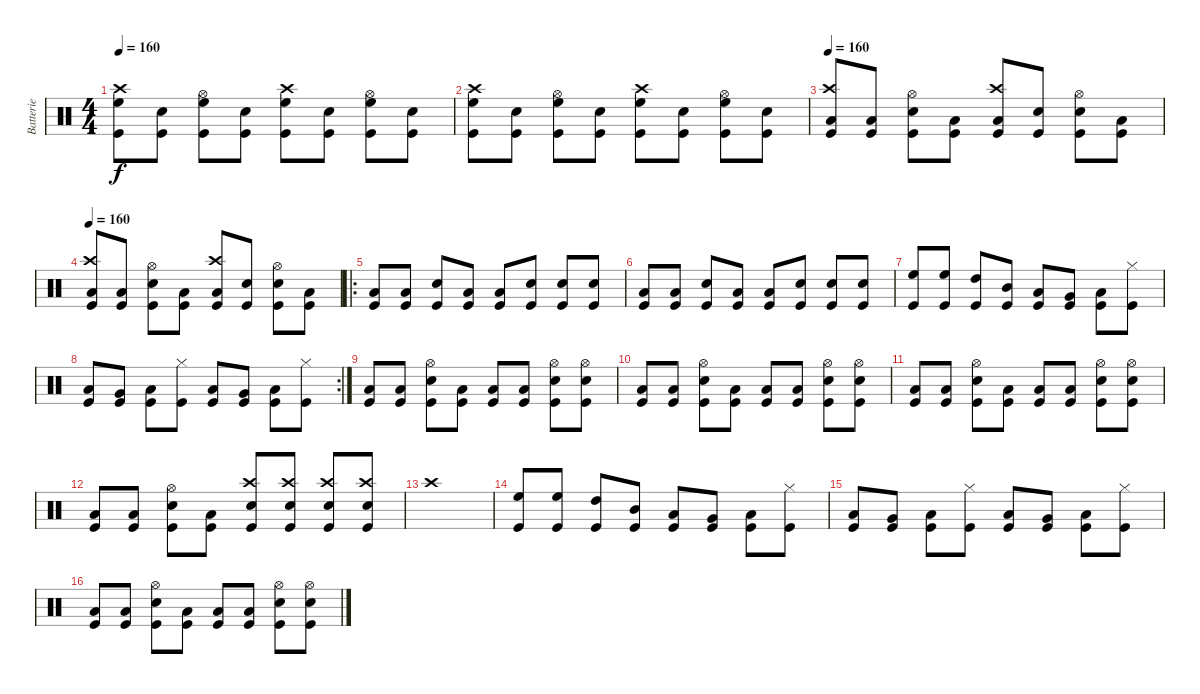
\track ("Batterie" "Batterie") {instrument percussion}
\staff {score}
\articulation defaults
\ts (4 4)
\tempo 160
\clef neutral
\ks c
("Kick (hit)" "High Floor Tom (hit)" "Crash high (hit)").8{dy f} ("Kick (hit)" "Snare (hit) 2").8 ("Kick (hit)" "High Floor Tom (hit)" "Hi-Hat (open)").8 ("Kick (hit)" "Snare (hit) 2").8 ("Kick (hit)" "High Floor Tom (hit)" "Crash high (hit)").8 ("Kick (hit)" "Snare (hit) 2").8 ("Kick (hit)" "High Floor Tom (hit)" "Hi-Hat (open)").8 ("Kick (hit)" "Snare (hit) 2").8 |
("Kick (hit)" "High Floor Tom (hit)" "Crash high (hit)").8 ("Kick (hit)" "Snare (hit) 2").8 ("Kick (hit)" "High Floor Tom (hit)" "Hi-Hat (open)").8 ("Kick (hit)" "Snare (hit) 2").8 ("Kick (hit)" "High Floor Tom (hit)" "Crash high (hit)").8 ("Kick (hit)" "Snare (hit) 2").8 ("Kick (hit)" "High Floor Tom (hit)" "Hi-Hat (open)").8 ("Kick (hit)" "Snare (hit) 2").8 |
\tempo 160
("Kick (hit)" "Low Tom (hit)" "Crash high (hit)").8 ("Kick (hit)" "Low Tom (hit)").8 ("Kick (hit)" "Snare (hit) 2" "Hi-Hat (open)").8 ("Kick (hit)" "Low Tom (hit)").8 ("Kick (hit)" "Low Tom (hit)" "Crash high (hit)").8 ("Kick (hit)" "Snare (hit) 2").8 ("Kick (hit)" "Snare (hit) 2" "Hi-Hat (open)").8 ("Low Floor Tom (hit)" "Kick (hit)").8 |
\tempo 160
("Kick (hit)" "Low Tom (hit)" "Crash high (hit)").8 ("Kick (hit)" "Low Tom (hit)").8 ("Kick (hit)" "Snare (hit) 2" "Hi-Hat (open)").8 ("Kick (hit)" "Low Tom (hit)").8 ("Kick (hit)" "Low Tom (hit)" "Crash high (hit)").8 ("Kick (hit)" "Snare (hit) 2").8 ("Kick (hit)" "Snare (hit) 2" "Hi-Hat (open)").8 ("Low Floor Tom (hit)" "Kick (hit)").8 |
\ro
("Low Floor Tom (hit)" "Kick (hit)").8 ("Low Floor Tom (hit)" "Kick (hit)").8 ("Snare (hit) 2" "Kick (hit)").8 ("Low Floor Tom (hit)" "Kick (hit)").8 ("Low Floor Tom (hit)" "Kick (hit)").8 ("Snare (hit) 2" "Kick (hit)").8 ("Snare (hit) 2" "Kick (hit)").8 ("Snare (hit) 2" "Kick (hit)").8 |
("Low Floor Tom (hit)" "Kick (hit)").8 ("Low Floor Tom (hit)" "Kick (hit)").8 ("Snare (hit) 2" "Kick (hit)").8 ("Low Floor Tom (hit)" "Kick (hit)").8 ("Low Floor Tom (hit)" "Kick (hit)").8 ("Snare (hit) 2" "Kick (hit)").8 ("Snare (hit) 2" "Kick (hit)").8 ("Snare (hit) 2" "Kick (hit)").8 |
("Kick (hit)" "High Floor Tom (hit)").8 ("Kick (hit)" "High Floor Tom (hit)").8 ("Kick (hit)" "High Tom (hit)").8 ("Kick (hit)" "Mid Tom (hit)").8 ("Kick (hit)" "Low Tom (hit)").8 ("Kick (hit)" "Very Low Tom (hit)").8 ("Kick (hit)" "Low Floor Tom (hit)").8 ("Kick (hit)" "Hi-Hat (closed)").8 |
\rc 2
("Kick (hit)" "Low Tom (hit)").8 ("Kick (hit)" "Very Low Tom (hit)").8 ("Kick (hit)" "Low Floor Tom (hit)").8 ("Kick (hit)" "Hi-Hat (closed)").8 ("Kick (hit)" "Low Tom (hit)").8 ("Kick (hit)" "Very Low Tom (hit)").8 ("Kick (hit)" "Low Floor Tom (hit)").8 ("Kick (hit)" "Hi-Hat (closed)").8 |
("Low Floor Tom (hit)" "Kick (hit)").8 ("Low Floor Tom (hit)" "Kick (hit)").8 ("Hi-Hat (open)" "Snare (hit) 2" "Kick (hit)").8 ("Low Floor Tom (hit)" "Kick (hit)").8 ("Low Floor Tom (hit)" "Kick (hit)").8 ("Low Floor Tom (hit)" "Kick (hit)").8 ("Hi-Hat (open)" "Snare (hit) 2" "Kick (hit)").8 ("Hi-Hat (open)" "Snare (hit) 2" "Kick (hit)").8 |
("Low Floor Tom (hit)" "Kick (hit)").8 ("Low Floor Tom (hit)" "Kick (hit)").8 ("Hi-Hat (open)" "Snare (hit) 2" "Kick (hit)").8 ("Low Floor Tom (hit)" "Kick (hit)").8 ("Low Floor Tom (hit)" "Kick (hit)").8 ("Low Floor Tom (hit)" "Kick (hit)").8 ("Hi-Hat (open)" "Snare (hit) 2" "Kick (hit)").8 ("Hi-Hat (open)" "Snare (hit) 2" "Kick (hit)").8 |
("Low Floor Tom (hit)" "Kick (hit)").8 ("Low Floor Tom (hit)" "Kick (hit)").8 ("Hi-Hat (open)" "Snare (hit) 2" "Kick (hit)").8 ("Low Floor Tom (hit)" "Kick (hit)").8 ("Low Floor Tom (hit)" "Kick (hit)").8 ("Low Floor Tom (hit)" "Kick (hit)").8 ("Hi-Hat (open)" "Snare (hit) 2" "Kick (hit)").8 ("Hi-Hat (open)" "Snare (hit) 2" "Kick (hit)").8 |
("Low Floor Tom (hit)" "Kick (hit)").8 ("Low Floor Tom (hit)" "Kick (hit)").8 ("Hi-Hat (open)" "Snare (hit) 2" "Kick (hit)").8 ("Low Floor Tom (hit)" "Kick (hit)").8 ("Snare (hit) 2" "Kick (hit)" "Crash high (hit)").8 ("Snare (hit) 2" "Kick (hit)" "Crash high (hit)").8 ("Snare (hit) 2" "Kick (hit)" "Crash high (hit)").8 ("Snare (hit) 2" "Kick (hit)" "Crash high (hit)").8 |
"Crash high (hit)".1 |
("Kick (hit)" "High Floor Tom (hit)").8 ("Kick (hit)" "High Floor Tom (hit)").8 ("Kick (hit)" "High Tom (hit)").8 ("Kick (hit)" "Mid Tom (hit)").8 ("Kick (hit)" "Low Tom (hit)").8 ("Kick (hit)" "Very Low Tom (hit)").8 ("Kick (hit)" "Low Floor Tom (hit)").8 ("Kick (hit)" "Hi-Hat (closed)").8 |
("Kick (hit)" "Low Tom (hit)").8 ("Kick (hit)" "Very Low Tom (hit)").8 ("Kick (hit)" "Low Floor Tom (hit)").8 ("Kick (hit)" "Hi-Hat (closed)").8 ("Kick (hit)" "Low Tom (hit)").8 ("Kick (hit)" "Very Low Tom (hit)").8 ("Kick (hit)" "Low Floor Tom (hit)").8 ("Kick (hit)" "Hi-Hat (closed)").8 |
("Low Floor Tom (hit)" "Kick (hit)").8 ("Low Floor Tom (hit)" "Kick (hit)").8 ("Hi-Hat (open)" "Snare (hit) 2" "Kick (hit)").8 ("Low Floor Tom (hit)" "Kick (hit)").8 ("Low Floor Tom (hit)" "Kick (hit)").8 ("Low Floor Tom (hit)" "Kick (hit)").8 ("Hi-Hat (open)" "Snare (hit) 2" "Kick (hit)").8 ("Hi-Hat (open)" "Snare (hit) 2" "Kick (hit)").8
